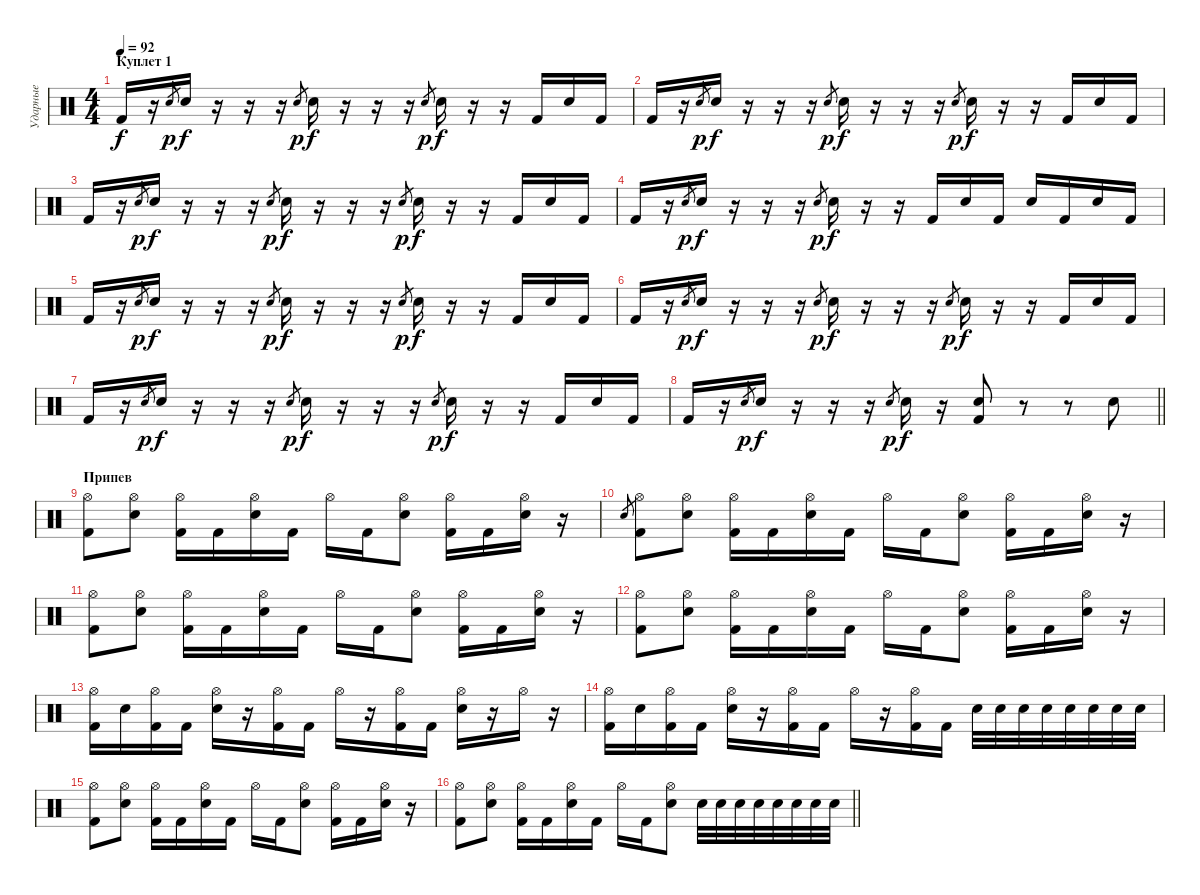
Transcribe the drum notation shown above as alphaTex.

\track ("Ударные" "Ударные") {instrument percussion}
\staff {score}
\articulation defaults
\ts (4 4)
\section ("" "Куплет 1")
\tempo 92
\clef neutral
\ks c "Kick (hit) 2".16{dy f}
r.16 "Electric Snare (hit)".8{gr dy p} "Electric Snare (hit)".16{dy f} r.16 r.16 r.16 "Electric Snare (hit)".8{gr dy p} "Electric Snare (hit)".16{dy f} r.16 r.16 r.16 "Electric Snare (hit)".8{gr dy p} "Electric Snare (hit)".16{dy f} r.16 r.16 "Kick (hit) 2".16 "Electric Snare (hit)".16 "Kick (hit) 2".16 |
"Kick (hit) 2".16 r.16 "Electric Snare (hit)".8{gr dy p} "Electric Snare (hit)".16{dy f} r.16 r.16 r.16 "Electric Snare (hit)".8{gr dy p} "Electric Snare (hit)".16{dy f} r.16 r.16 r.16 "Electric Snare (hit)".8{gr dy p} "Electric Snare (hit)".16{dy f} r.16 r.16 "Kick (hit) 2".16 "Electric Snare (hit)".16 "Kick (hit) 2".16 |
"Kick (hit) 2".16 r.16 "Electric Snare (hit)".8{gr dy p} "Electric Snare (hit)".16{dy f} r.16 r.16 r.16 "Electric Snare (hit)".8{gr dy p} "Electric Snare (hit)".16{dy f} r.16 r.16 r.16 "Electric Snare (hit)".8{gr dy p} "Electric Snare (hit)".16{dy f} r.16 r.16 "Kick (hit) 2".16 "Electric Snare (hit)".16 "Kick (hit) 2".16 |
"Kick (hit) 2".16 r.16 "Electric Snare (hit)".8{gr dy p} "Electric Snare (hit)".16{dy f} r.16 r.16 r.16 "Electric Snare (hit)".8{gr dy p} "Electric Snare (hit)".16{dy f} r.16 r.16 "Kick (hit) 2".16 "Electric Snare (hit)".16 "Kick (hit) 2".16 "Electric Snare (hit)".16 "Kick (hit) 2".16 "Electric Snare (hit)".16 "Kick (hit) 2".16 |
"Kick (hit) 2".16 r.16 "Electric Snare (hit)".8{gr dy p} "Electric Snare (hit)".16{dy f} r.16 r.16 r.16 "Electric Snare (hit)".8{gr dy p} "Electric Snare (hit)".16{dy f} r.16 r.16 r.16 "Electric Snare (hit)".8{gr dy p} "Electric Snare (hit)".16{dy f} r.16 r.16 "Kick (hit) 2".16 "Electric Snare (hit)".16 "Kick (hit) 2".16 |
"Kick (hit) 2".16 r.16 "Electric Snare (hit)".8{gr dy p} "Electric Snare (hit)".16{dy f} r.16 r.16 r.16 "Electric Snare (hit)".8{gr dy p} "Electric Snare (hit)".16{dy f} r.16 r.16 r.16 "Electric Snare (hit)".8{gr dy p} "Electric Snare (hit)".16{dy f} r.16 r.16 "Kick (hit) 2".16 "Electric Snare (hit)".16 "Kick (hit) 2".16 |
"Kick (hit) 2".16 r.16 "Electric Snare (hit)".8{gr dy p} "Electric Snare (hit)".16{dy f} r.16 r.16 r.16 "Electric Snare (hit)".8{gr dy p} "Electric Snare (hit)".16{dy f} r.16 r.16 r.16 "Electric Snare (hit)".8{gr dy p} "Electric Snare (hit)".16{dy f} r.16 r.16 "Kick (hit) 2".16 "Electric Snare (hit)".16 "Kick (hit) 2".16 |
\barLineRight lightlight "Kick (hit) 2".16
r.16 "Electric Snare (hit)".8{gr dy p} "Electric Snare (hit)".16{dy f} r.16 r.16 r.16 "Electric Snare (hit)".8{gr dy p} "Electric Snare (hit)".16{dy f} r.16 ("Kick (hit) 2" "Electric Snare (hit)").8 r.8 r.8 "Electric Snare (hit)".8 |
\section ("" "Припев")
("Hi-Hat (open)" "Kick (hit) 2").8 ("Hi-Hat (open)" "Electric Snare (hit)").8 ("Hi-Hat (open)" "Kick (hit) 2").16 "Kick (hit) 2".16 ("Hi-Hat (open)" "Electric Snare (hit)").16 "Kick (hit) 2".16 "Hi-Hat (open)".16 "Kick (hit) 2".16 ("Hi-Hat (open)" "Electric Snare (hit)").8 ("Hi-Hat (open)" "Kick (hit) 2").16 "Kick (hit) 2".16 ("Hi-Hat (open)" "Electric Snare (hit)").16 r.16 |
"Electric Snare (hit)".8{gr} ("Hi-Hat (open)" "Kick (hit) 2").8 ("Hi-Hat (open)" "Electric Snare (hit)").8 ("Hi-Hat (open)" "Kick (hit) 2").16 "Kick (hit) 2".16 ("Hi-Hat (open)" "Electric Snare (hit)").16 "Kick (hit) 2".16 "Hi-Hat (open)".16 "Kick (hit) 2".16 ("Hi-Hat (open)" "Electric Snare (hit)").8 ("Hi-Hat (open)" "Kick (hit) 2").16 "Kick (hit) 2".16 ("Hi-Hat (open)" "Electric Snare (hit)").16 r.16 |
("Hi-Hat (open)" "Kick (hit) 2").8 ("Hi-Hat (open)" "Electric Snare (hit)").8 ("Hi-Hat (open)" "Kick (hit) 2").16 "Kick (hit) 2".16 ("Hi-Hat (open)" "Electric Snare (hit)").16 "Kick (hit) 2".16 "Hi-Hat (open)".16 "Kick (hit) 2".16 ("Hi-Hat (open)" "Electric Snare (hit)").8 ("Hi-Hat (open)" "Kick (hit) 2").16 "Kick (hit) 2".16 ("Hi-Hat (open)" "Electric Snare (hit)").16 r.16 |
("Hi-Hat (open)" "Kick (hit) 2").8 ("Hi-Hat (open)" "Electric Snare (hit)").8 ("Hi-Hat (open)" "Kick (hit) 2").16 "Kick (hit) 2".16 ("Hi-Hat (open)" "Electric Snare (hit)").16 "Kick (hit) 2".16 "Hi-Hat (open)".16 "Kick (hit) 2".16 ("Hi-Hat (open)" "Electric Snare (hit)").8 ("Hi-Hat (open)" "Kick (hit) 2").16 "Kick (hit) 2".16 ("Hi-Hat (open)" "Electric Snare (hit)").16 r.16 |
("Hi-Hat (open)" "Kick (hit) 2").16 "Electric Snare (hit)".16 ("Hi-Hat (open)" "Kick (hit) 2").16 "Kick (hit) 2".16 ("Hi-Hat (open)" "Electric Snare (hit)").16 r.16 ("Hi-Hat (open)" "Kick (hit) 2").16 "Kick (hit) 2".16 "Hi-Hat (open)".16 r.16 ("Hi-Hat (open)" "Kick (hit) 2").16 "Kick (hit) 2".16 ("Hi-Hat (open)" "Electric Snare (hit)").16 r.16 "Hi-Hat (open)".16 r.16 |
("Hi-Hat (open)" "Kick (hit) 2").16 "Electric Snare (hit)".16 ("Hi-Hat (open)" "Kick (hit) 2").16 "Kick (hit) 2".16 ("Hi-Hat (open)" "Electric Snare (hit)").16 r.16 ("Hi-Hat (open)" "Kick (hit) 2").16 "Kick (hit) 2".16 "Hi-Hat (open)".16 r.16 ("Hi-Hat (open)" "Kick (hit) 2").16 "Kick (hit) 2".16 "Snare (hit) 2".32 "Snare (hit) 2".32 "Snare (hit) 2".32 "Snare (hit) 2".32 "Snare (hit) 2".32 "Electric Snare (hit)".32 "Electric Snare (hit)".32 "Electric Snare (hit)".32 |
("Hi-Hat (open)" "Kick (hit) 2").8 ("Hi-Hat (open)" "Electric Snare (hit)").8 ("Hi-Hat (open)" "Kick (hit) 2").16 "Kick (hit) 2".16 ("Hi-Hat (open)" "Electric Snare (hit)").16 "Kick (hit) 2".16 "Hi-Hat (open)".16 "Kick (hit) 2".16 ("Hi-Hat (open)" "Electric Snare (hit)").8 ("Hi-Hat (open)" "Kick (hit) 2").16 "Kick (hit) 2".16 ("Hi-Hat (open)" "Electric Snare (hit)").16 r.16 |
\barLineRight lightlight
("Hi-Hat (open)" "Kick (hit) 2").8 ("Hi-Hat (open)" "Electric Snare (hit)").8 ("Hi-Hat (open)" "Kick (hit) 2").16 "Kick (hit) 2".16 ("Hi-Hat (open)" "Electric Snare (hit)").16 "Kick (hit) 2".16 "Hi-Hat (open)".16 "Kick (hit) 2".16 ("Hi-Hat (open)" "Electric Snare (hit)").8 "Snare (hit) 2".32 "Snare (hit) 2".32 "Snare (hit) 2".32 "Snare (hit) 2".32 "Electric Snare (hit)".32 "Electric Snare (hit)".32 "Electric Snare (hit)".32 "Electric Snare (hit)".32
